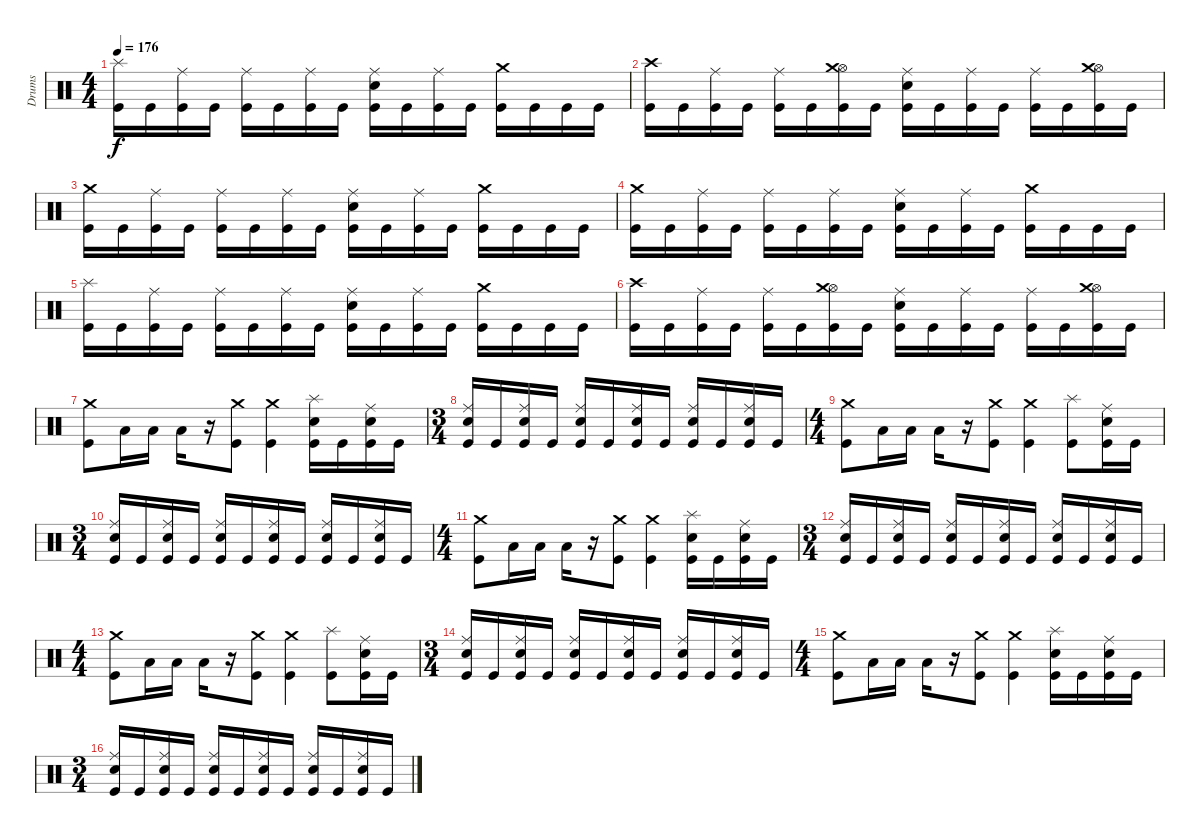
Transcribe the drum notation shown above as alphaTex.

\track ("Drums" "Drums") {instrument percussion}
\staff {score}
\articulation defaults
\ts (4 4)
\tempo 176
\clef neutral
\ks c
("Splash (hit)" "Kick (hit)").16{dy f} "Kick (hit)".16 ("Ride (middle)" "Kick (hit)").16 "Kick (hit)".16 ("Ride (middle)" "Kick (hit)").16 "Kick (hit)".16 ("Ride (middle)" "Kick (hit)").16 "Kick (hit)".16 ("Ride (middle)" "Electric Snare (hit)" "Kick (hit)").16 "Kick (hit)".16 ("Ride (middle)" "Kick (hit)").16 "Kick (hit)".16 ("Crash medium (hit)" "Kick (hit)").16 "Kick (hit)".16 "Kick (hit)".16 "Kick (hit)".16 |
("Crash high (hit)" "Kick (hit)").16 "Kick (hit)".16 ("Ride (middle)" "Kick (hit)").16 "Kick (hit)".16 ("Ride (middle)" "Kick (hit)").16 "Kick (hit)".16 ("Hi-Hat (open)" "Crash medium (hit)" "Kick (hit)").16 "Kick (hit)".16 ("Ride (middle)" "Electric Snare (hit)" "Kick (hit)").16 "Kick (hit)".16 ("Ride (middle)" "Kick (hit)").16 "Kick (hit)".16 ("Ride (middle)" "Kick (hit)").16 "Kick (hit)".16 ("Hi-Hat (open)" "Crash medium (hit)" "Kick (hit)").16 "Kick (hit)".16 |
("Crash medium (hit)" "Kick (hit)").16 "Kick (hit)".16 ("Ride (middle)" "Kick (hit)").16 "Kick (hit)".16 ("Ride (middle)" "Kick (hit)").16 "Kick (hit)".16 ("Ride (middle)" "Kick (hit)").16 "Kick (hit)".16 ("Ride (middle)" "Electric Snare (hit)" "Kick (hit)").16 "Kick (hit)".16 ("Ride (middle)" "Kick (hit)").16 "Kick (hit)".16 ("Crash medium (hit)" "Kick (hit)").16 "Kick (hit)".16 "Kick (hit)".16 "Kick (hit)".16 |
("Crash medium (hit)" "Kick (hit)").16 "Kick (hit)".16 ("Ride (middle)" "Kick (hit)").16 "Kick (hit)".16 ("Ride (middle)" "Kick (hit)").16 "Kick (hit)".16 ("Ride (middle)" "Kick (hit)").16 "Kick (hit)".16 ("Ride (middle)" "Electric Snare (hit)" "Kick (hit)").16 "Kick (hit)".16 ("Ride (middle)" "Kick (hit)").16 "Kick (hit)".16 ("Crash medium (hit)" "Kick (hit)").16 "Kick (hit)".16 "Kick (hit)".16 "Kick (hit)".16 |
("Splash (hit)" "Kick (hit)").16 "Kick (hit)".16 ("Ride (middle)" "Kick (hit)").16 "Kick (hit)".16 ("Ride (middle)" "Kick (hit)").16 "Kick (hit)".16 ("Ride (middle)" "Kick (hit)").16 "Kick (hit)".16 ("Ride (middle)" "Electric Snare (hit)" "Kick (hit)").16 "Kick (hit)".16 ("Ride (middle)" "Kick (hit)").16 "Kick (hit)".16 ("Crash medium (hit)" "Kick (hit)").16 "Kick (hit)".16 "Kick (hit)".16 "Kick (hit)".16 |
("Crash high (hit)" "Kick (hit)").16 "Kick (hit)".16 ("Ride (middle)" "Kick (hit)").16 "Kick (hit)".16 ("Ride (middle)" "Kick (hit)").16 "Kick (hit)".16 ("Hi-Hat (open)" "Crash medium (hit)" "Kick (hit)").16 "Kick (hit)".16 ("Ride (middle)" "Electric Snare (hit)" "Kick (hit)").16 "Kick (hit)".16 ("Ride (middle)" "Kick (hit)").16 "Kick (hit)".16 ("Ride (middle)" "Kick (hit)").16 "Kick (hit)".16 ("Hi-Hat (open)" "Crash medium (hit)" "Kick (hit)").16 "Kick (hit)".16 |
("Crash medium (hit)" "Kick (hit)").8 "Low Tom (hit)".16 "Low Tom (hit)".16 "Low Tom (hit)".16 r.16 ("Crash medium (hit)" "Kick (hit)").8 ("Crash medium (hit)" "Kick (hit)").4 ("Splash (hit)" "Electric Snare (hit)" "Kick (hit)").16 "Kick (hit)".16 ("Ride (middle)" "Electric Snare (hit)" "Kick (hit)").16 "Kick (hit)".16 |
\ts (3 4)
("Ride (middle)" "Electric Snare (hit)" "Kick (hit)").16 "Kick (hit)".16 ("Ride (middle)" "Electric Snare (hit)" "Kick (hit)").16 "Kick (hit)".16 ("Ride (middle)" "Electric Snare (hit)" "Kick (hit)").16 "Kick (hit)".16 ("Ride (middle)" "Electric Snare (hit)" "Kick (hit)").16 "Kick (hit)".16 ("Ride (middle)" "Electric Snare (hit)" "Kick (hit)").16 "Kick (hit)".16 ("Ride (middle)" "Electric Snare (hit)" "Kick (hit)").16 "Kick (hit)".16 |
\ts (4 4)
("Crash medium (hit)" "Kick (hit)").8 "Low Tom (hit)".16 "Low Tom (hit)".16 "Low Tom (hit)".16 r.16 ("Crash medium (hit)" "Kick (hit)").8 ("Crash medium (hit)" "Kick (hit)").4 ("Splash (hit)" "Kick (hit)").8 ("Ride (middle)" "Electric Snare (hit)" "Kick (hit)").16 "Kick (hit)".16 |
\ts (3 4)
("Ride (middle)" "Electric Snare (hit)" "Kick (hit)").16 "Kick (hit)".16 ("Ride (middle)" "Electric Snare (hit)" "Kick (hit)").16 "Kick (hit)".16 ("Ride (middle)" "Electric Snare (hit)" "Kick (hit)").16 "Kick (hit)".16 ("Ride (middle)" "Electric Snare (hit)" "Kick (hit)").16 "Kick (hit)".16 ("Ride (middle)" "Electric Snare (hit)" "Kick (hit)").16 "Kick (hit)".16 ("Ride (middle)" "Electric Snare (hit)" "Kick (hit)").16 "Kick (hit)".16 |
\ts (4 4)
("Crash medium (hit)" "Kick (hit)").8 "Low Tom (hit)".16 "Low Tom (hit)".16 "Low Tom (hit)".16 r.16 ("Crash medium (hit)" "Kick (hit)").8 ("Crash medium (hit)" "Kick (hit)").4 ("Splash (hit)" "Electric Snare (hit)" "Kick (hit)").16 "Kick (hit)".16 ("Ride (middle)" "Electric Snare (hit)" "Kick (hit)").16 "Kick (hit)".16 |
\ts (3 4)
("Ride (middle)" "Electric Snare (hit)" "Kick (hit)").16 "Kick (hit)".16 ("Ride (middle)" "Electric Snare (hit)" "Kick (hit)").16 "Kick (hit)".16 ("Ride (middle)" "Electric Snare (hit)" "Kick (hit)").16 "Kick (hit)".16 ("Ride (middle)" "Electric Snare (hit)" "Kick (hit)").16 "Kick (hit)".16 ("Ride (middle)" "Electric Snare (hit)" "Kick (hit)").16 "Kick (hit)".16 ("Ride (middle)" "Electric Snare (hit)" "Kick (hit)").16 "Kick (hit)".16 |
\ts (4 4)
("Crash medium (hit)" "Kick (hit)").8 "Low Tom (hit)".16 "Low Tom (hit)".16 "Low Tom (hit)".16 r.16 ("Crash medium (hit)" "Kick (hit)").8 ("Crash medium (hit)" "Kick (hit)").4 ("Splash (hit)" "Kick (hit)").8 ("Ride (middle)" "Electric Snare (hit)" "Kick (hit)").16 "Kick (hit)".16 |
\ts (3 4)
("Ride (middle)" "Electric Snare (hit)" "Kick (hit)").16 "Kick (hit)".16 ("Ride (middle)" "Electric Snare (hit)" "Kick (hit)").16 "Kick (hit)".16 ("Ride (middle)" "Electric Snare (hit)" "Kick (hit)").16 "Kick (hit)".16 ("Ride (middle)" "Electric Snare (hit)" "Kick (hit)").16 "Kick (hit)".16 ("Ride (middle)" "Electric Snare (hit)" "Kick (hit)").16 "Kick (hit)".16 ("Ride (middle)" "Electric Snare (hit)" "Kick (hit)").16 "Kick (hit)".16 |
\ts (4 4)
("Crash medium (hit)" "Kick (hit)").8 "Low Tom (hit)".16 "Low Tom (hit)".16 "Low Tom (hit)".16 r.16 ("Crash medium (hit)" "Kick (hit)").8 ("Crash medium (hit)" "Kick (hit)").4 ("Splash (hit)" "Electric Snare (hit)" "Kick (hit)").16 "Kick (hit)".16 ("Ride (middle)" "Electric Snare (hit)" "Kick (hit)").16 "Kick (hit)".16 |
\ts (3 4)
("Ride (middle)" "Electric Snare (hit)" "Kick (hit)").16 "Kick (hit)".16 ("Ride (middle)" "Electric Snare (hit)" "Kick (hit)").16 "Kick (hit)".16 ("Ride (middle)" "Electric Snare (hit)" "Kick (hit)").16 "Kick (hit)".16 ("Ride (middle)" "Electric Snare (hit)" "Kick (hit)").16 "Kick (hit)".16 ("Ride (middle)" "Electric Snare (hit)" "Kick (hit)").16 "Kick (hit)".16 ("Ride (middle)" "Electric Snare (hit)" "Kick (hit)").16 "Kick (hit)".16
